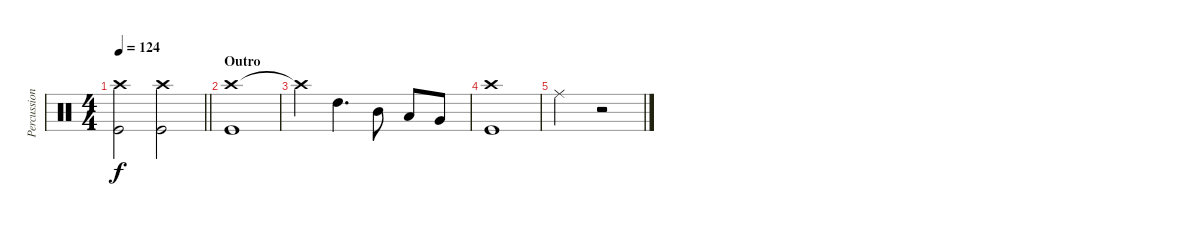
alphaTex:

\track ("Percussion" "Percussion") {instrument percussion}
\staff {score}
\articulation defaults
\ts (4 4)
\tempo 124
\clef neutral
\barLineRight lightlight
\ks c
("Crash high (hit)" "Kick (hit)").2{dy f} ("Crash high (hit)" "Kick (hit)").2 |
\section ("" "Outro")
("Crash high (hit)" "Kick (hit)").1 |
"Crash high (hit)"{t}.4 "High Tom (hit)".4{d} "Mid Tom (hit)".8 "Low Tom (hit)".8 "Very Low Tom (hit)".8 |
("Crash high (hit)" "Kick (hit)").1 |
"Ride (middle)".2 r.2
